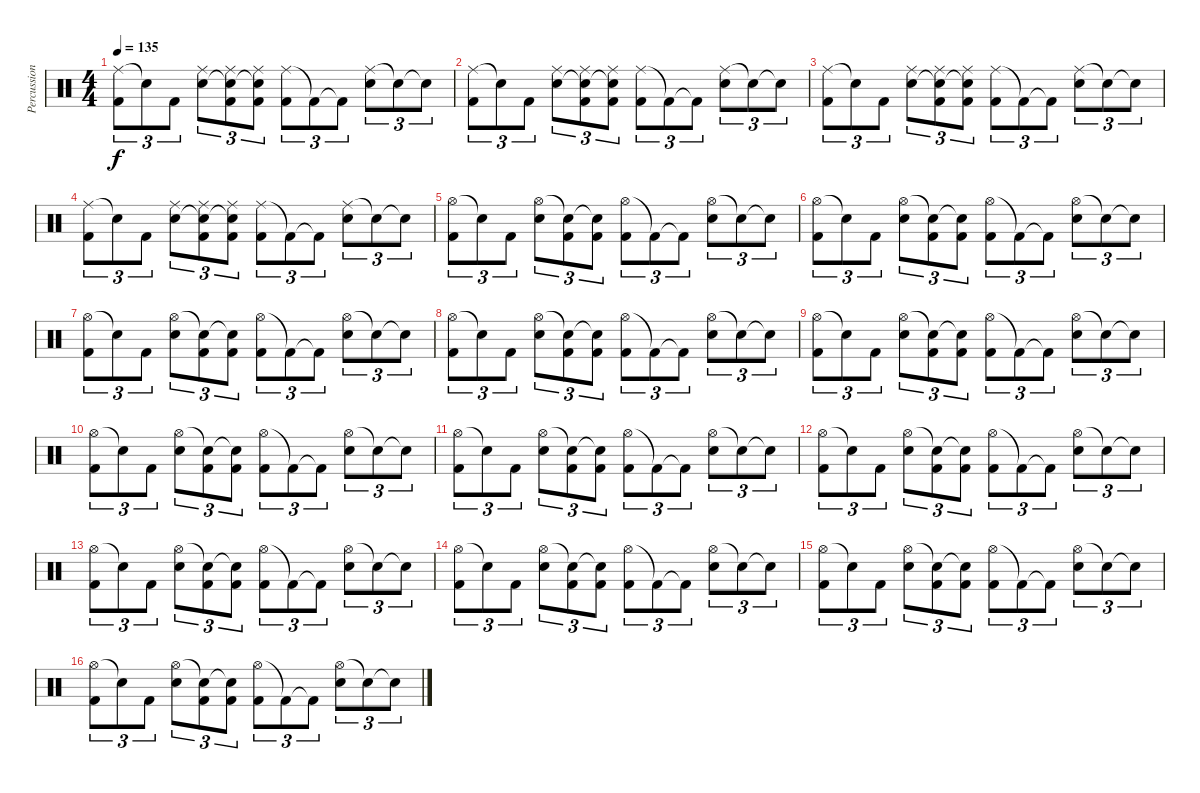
\track ("Percussions" "Percussion") {instrument percussion}
\staff {score}
\articulation defaults
\ts (4 4)
\tempo 135
\clef neutral
\ks c
("Ride (middle)" "Kick (hit) 2").8{tu (3 2) dy f} "Snare (hit)"{t}.8{tu (3 2)} "Kick (hit) 2".8{tu (3 2)} ("Ride (middle)" "Snare (hit) 2").8{tu (3 2)} ("Ride (middle)" "Snare (hit)"{t} "Kick (hit) 2").8{tu (3 2)} ("Ride (middle)" "Snare (hit)"{t} "Kick (hit) 2").8{tu (3 2)} ("Ride (middle)" "Kick (hit) 2").8{tu (3 2)} "Kick (hit) 2"{t}.8{tu (3 2)} "Kick (hit) 2"{t}.8{tu (3 2)} ("Ride (middle)" "Snare (hit) 2").8{tu (3 2)} "Snare (hit)"{t}.8{tu (3 2)} "Snare (hit)"{t}.8{tu (3 2)} |
("Ride (middle)" "Kick (hit) 2").8{tu (3 2)} "Snare (hit)"{t}.8{tu (3 2)} "Kick (hit) 2".8{tu (3 2)} ("Ride (middle)" "Snare (hit) 2").8{tu (3 2)} ("Ride (middle)" "Snare (hit)"{t} "Kick (hit) 2").8{tu (3 2)} ("Ride (middle)" "Snare (hit)"{t} "Kick (hit) 2").8{tu (3 2)} ("Ride (middle)" "Kick (hit) 2").8{tu (3 2)} "Kick (hit) 2"{t}.8{tu (3 2)} "Kick (hit) 2"{t}.8{tu (3 2)} ("Ride (middle)" "Snare (hit) 2").8{tu (3 2)} "Snare (hit)"{t}.8{tu (3 2)} "Snare (hit)"{t}.8{tu (3 2)} |
("Ride (middle)" "Kick (hit) 2").8{tu (3 2)} "Snare (hit)"{t}.8{tu (3 2)} "Kick (hit) 2".8{tu (3 2)} ("Ride (middle)" "Snare (hit) 2").8{tu (3 2)} ("Ride (middle)" "Snare (hit)"{t} "Kick (hit) 2").8{tu (3 2)} ("Ride (middle)" "Snare (hit)"{t} "Kick (hit) 2").8{tu (3 2)} ("Ride (middle)" "Kick (hit) 2").8{tu (3 2)} "Kick (hit) 2"{t}.8{tu (3 2)} "Kick (hit) 2"{t}.8{tu (3 2)} ("Ride (middle)" "Snare (hit) 2").8{tu (3 2)} "Snare (hit)"{t}.8{tu (3 2)} "Snare (hit)"{t}.8{tu (3 2)} |
("Ride (middle)" "Kick (hit) 2").8{tu (3 2)} "Snare (hit)"{t}.8{tu (3 2)} "Kick (hit) 2".8{tu (3 2)} ("Ride (middle)" "Snare (hit) 2").8{tu (3 2)} ("Ride (middle)" "Snare (hit)"{t} "Kick (hit) 2").8{tu (3 2)} ("Ride (middle)" "Snare (hit)"{t} "Kick (hit) 2").8{tu (3 2)} ("Ride (middle)" "Kick (hit) 2").8{tu (3 2)} "Kick (hit) 2"{t}.8{tu (3 2)} "Kick (hit) 2"{t}.8{tu (3 2)} ("Ride (middle)" "Snare (hit) 2").8{tu (3 2)} "Snare (hit)"{t}.8{tu (3 2)} "Snare (hit)"{t}.8{tu (3 2)} |
("Hi-Hat (open)" "Kick (hit) 2").8{tu (3 2)} "Snare (hit)"{t}.8{tu (3 2)} "Kick (hit) 2".8{tu (3 2)} ("Hi-Hat (open)" "Snare (hit) 2").8{tu (3 2)} ("Snare (hit)"{t} "Kick (hit) 2").8{tu (3 2)} ("Snare (hit)"{t} "Kick (hit) 2").8{tu (3 2)} ("Hi-Hat (open)" "Kick (hit) 2").8{tu (3 2)} "Kick (hit) 2"{t}.8{tu (3 2)} "Kick (hit) 2"{t}.8{tu (3 2)} ("Hi-Hat (open)" "Snare (hit) 2").8{tu (3 2)} "Snare (hit)"{t}.8{tu (3 2)} "Snare (hit)"{t}.8{tu (3 2)} |
("Hi-Hat (open)" "Kick (hit) 2").8{tu (3 2)} "Snare (hit)"{t}.8{tu (3 2)} "Kick (hit) 2".8{tu (3 2)} ("Hi-Hat (open)" "Snare (hit) 2").8{tu (3 2)} ("Snare (hit)"{t} "Kick (hit) 2").8{tu (3 2)} ("Snare (hit)"{t} "Kick (hit) 2").8{tu (3 2)} ("Hi-Hat (open)" "Kick (hit) 2").8{tu (3 2)} "Kick (hit) 2"{t}.8{tu (3 2)} "Kick (hit) 2"{t}.8{tu (3 2)} ("Hi-Hat (open)" "Snare (hit) 2").8{tu (3 2)} "Snare (hit)"{t}.8{tu (3 2)} "Snare (hit)"{t}.8{tu (3 2)} |
("Hi-Hat (open)" "Kick (hit) 2").8{tu (3 2)} "Snare (hit)"{t}.8{tu (3 2)} "Kick (hit) 2".8{tu (3 2)} ("Hi-Hat (open)" "Snare (hit) 2").8{tu (3 2)} ("Snare (hit)"{t} "Kick (hit) 2").8{tu (3 2)} ("Snare (hit)"{t} "Kick (hit) 2").8{tu (3 2)} ("Hi-Hat (open)" "Kick (hit) 2").8{tu (3 2)} "Kick (hit) 2"{t}.8{tu (3 2)} "Kick (hit) 2"{t}.8{tu (3 2)} ("Hi-Hat (open)" "Snare (hit) 2").8{tu (3 2)} "Snare (hit)"{t}.8{tu (3 2)} "Snare (hit)"{t}.8{tu (3 2)} |
("Hi-Hat (open)" "Kick (hit) 2").8{tu (3 2)} "Snare (hit)"{t}.8{tu (3 2)} "Kick (hit) 2".8{tu (3 2)} ("Hi-Hat (open)" "Snare (hit) 2").8{tu (3 2)} ("Snare (hit)"{t} "Kick (hit) 2").8{tu (3 2)} ("Snare (hit)"{t} "Kick (hit) 2").8{tu (3 2)} ("Hi-Hat (open)" "Kick (hit) 2").8{tu (3 2)} "Kick (hit) 2"{t}.8{tu (3 2)} "Kick (hit) 2"{t}.8{tu (3 2)} ("Hi-Hat (open)" "Snare (hit) 2").8{tu (3 2)} "Snare (hit)"{t}.8{tu (3 2)} "Snare (hit)"{t}.8{tu (3 2)} |
("Hi-Hat (open)" "Kick (hit) 2").8{tu (3 2)} "Snare (hit)"{t}.8{tu (3 2)} "Kick (hit) 2".8{tu (3 2)} ("Hi-Hat (open)" "Snare (hit) 2").8{tu (3 2)} ("Snare (hit)"{t} "Kick (hit) 2").8{tu (3 2)} ("Snare (hit)"{t} "Kick (hit) 2").8{tu (3 2)} ("Hi-Hat (open)" "Kick (hit) 2").8{tu (3 2)} "Kick (hit) 2"{t}.8{tu (3 2)} "Kick (hit) 2"{t}.8{tu (3 2)} ("Hi-Hat (open)" "Snare (hit) 2").8{tu (3 2)} "Snare (hit)"{t}.8{tu (3 2)} "Snare (hit)"{t}.8{tu (3 2)} |
("Hi-Hat (open)" "Kick (hit) 2").8{tu (3 2)} "Snare (hit)"{t}.8{tu (3 2)} "Kick (hit) 2".8{tu (3 2)} ("Hi-Hat (open)" "Snare (hit) 2").8{tu (3 2)} ("Snare (hit)"{t} "Kick (hit) 2").8{tu (3 2)} ("Snare (hit)"{t} "Kick (hit) 2").8{tu (3 2)} ("Hi-Hat (open)" "Kick (hit) 2").8{tu (3 2)} "Kick (hit) 2"{t}.8{tu (3 2)} "Kick (hit) 2"{t}.8{tu (3 2)} ("Hi-Hat (open)" "Snare (hit) 2").8{tu (3 2)} "Snare (hit)"{t}.8{tu (3 2)} "Snare (hit)"{t}.8{tu (3 2)} |
("Hi-Hat (open)" "Kick (hit) 2").8{tu (3 2)} "Snare (hit)"{t}.8{tu (3 2)} "Kick (hit) 2".8{tu (3 2)} ("Hi-Hat (open)" "Snare (hit) 2").8{tu (3 2)} ("Snare (hit)"{t} "Kick (hit) 2").8{tu (3 2)} ("Snare (hit)"{t} "Kick (hit) 2").8{tu (3 2)} ("Hi-Hat (open)" "Kick (hit) 2").8{tu (3 2)} "Kick (hit) 2"{t}.8{tu (3 2)} "Kick (hit) 2"{t}.8{tu (3 2)} ("Hi-Hat (open)" "Snare (hit) 2").8{tu (3 2)} "Snare (hit)"{t}.8{tu (3 2)} "Snare (hit)"{t}.8{tu (3 2)} |
("Hi-Hat (open)" "Kick (hit) 2").8{tu (3 2)} "Snare (hit)"{t}.8{tu (3 2)} "Kick (hit) 2".8{tu (3 2)} ("Hi-Hat (open)" "Snare (hit) 2").8{tu (3 2)} ("Snare (hit)"{t} "Kick (hit) 2").8{tu (3 2)} ("Snare (hit)"{t} "Kick (hit) 2").8{tu (3 2)} ("Hi-Hat (open)" "Kick (hit) 2").8{tu (3 2)} "Kick (hit) 2"{t}.8{tu (3 2)} "Kick (hit) 2"{t}.8{tu (3 2)} ("Hi-Hat (open)" "Snare (hit) 2").8{tu (3 2)} "Snare (hit)"{t}.8{tu (3 2)} "Snare (hit)"{t}.8{tu (3 2)} |
("Hi-Hat (open)" "Kick (hit) 2").8{tu (3 2)} "Snare (hit)"{t}.8{tu (3 2)} "Kick (hit) 2".8{tu (3 2)} ("Hi-Hat (open)" "Snare (hit) 2").8{tu (3 2)} ("Snare (hit)"{t} "Kick (hit) 2").8{tu (3 2)} ("Snare (hit)"{t} "Kick (hit) 2").8{tu (3 2)} ("Hi-Hat (open)" "Kick (hit) 2").8{tu (3 2)} "Kick (hit) 2"{t}.8{tu (3 2)} "Kick (hit) 2"{t}.8{tu (3 2)} ("Hi-Hat (open)" "Snare (hit) 2").8{tu (3 2)} "Snare (hit)"{t}.8{tu (3 2)} "Snare (hit)"{t}.8{tu (3 2)} |
("Hi-Hat (open)" "Kick (hit) 2").8{tu (3 2)} "Snare (hit)"{t}.8{tu (3 2)} "Kick (hit) 2".8{tu (3 2)} ("Hi-Hat (open)" "Snare (hit) 2").8{tu (3 2)} ("Snare (hit)"{t} "Kick (hit) 2").8{tu (3 2)} ("Snare (hit)"{t} "Kick (hit) 2").8{tu (3 2)} ("Hi-Hat (open)" "Kick (hit) 2").8{tu (3 2)} "Kick (hit) 2"{t}.8{tu (3 2)} "Kick (hit) 2"{t}.8{tu (3 2)} ("Hi-Hat (open)" "Snare (hit) 2").8{tu (3 2)} "Snare (hit)"{t}.8{tu (3 2)} "Snare (hit)"{t}.8{tu (3 2)} |
("Hi-Hat (open)" "Kick (hit) 2").8{tu (3 2)} "Snare (hit)"{t}.8{tu (3 2)} "Kick (hit) 2".8{tu (3 2)} ("Hi-Hat (open)" "Snare (hit) 2").8{tu (3 2)} ("Snare (hit)"{t} "Kick (hit) 2").8{tu (3 2)} ("Snare (hit)"{t} "Kick (hit) 2").8{tu (3 2)} ("Hi-Hat (open)" "Kick (hit) 2").8{tu (3 2)} "Kick (hit) 2"{t}.8{tu (3 2)} "Kick (hit) 2"{t}.8{tu (3 2)} ("Hi-Hat (open)" "Snare (hit) 2").8{tu (3 2)} "Snare (hit)"{t}.8{tu (3 2)} "Snare (hit)"{t}.8{tu (3 2)} |
("Hi-Hat (open)" "Kick (hit) 2").8{tu (3 2)} "Snare (hit)"{t}.8{tu (3 2)} "Kick (hit) 2".8{tu (3 2)} ("Hi-Hat (open)" "Snare (hit) 2").8{tu (3 2)} ("Snare (hit)"{t} "Kick (hit) 2").8{tu (3 2)} ("Snare (hit)"{t} "Kick (hit) 2").8{tu (3 2)} ("Hi-Hat (open)" "Kick (hit) 2").8{tu (3 2)} "Kick (hit) 2"{t}.8{tu (3 2)} "Kick (hit) 2"{t}.8{tu (3 2)} ("Hi-Hat (open)" "Snare (hit) 2").8{tu (3 2)} "Snare (hit)"{t}.8{tu (3 2)} "Snare (hit)"{t}.8{tu (3 2)}
